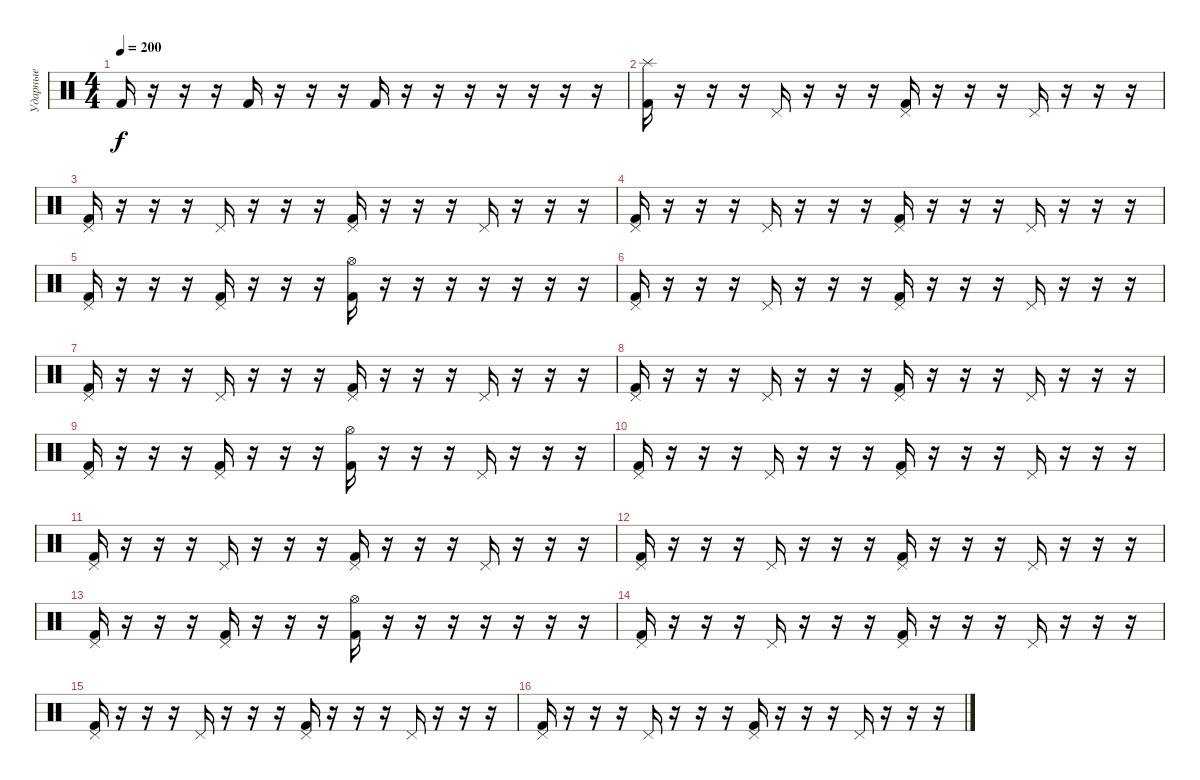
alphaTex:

\track ("Ударные" "Ударные") {instrument percussion}
\staff {score}
\articulation defaults
\ts (4 4)
\tempo 200
\clef neutral
\ks c "Kick (hit) 2".16{dy f}
r.16 r.16 r.16 "Kick (hit) 2".16 r.16 r.16 r.16 "Kick (hit) 2".16 r.16 r.16 r.16 r.16 r.16 r.16 r.16 |
("Splash (hit)" "Kick (hit) 2").16 r.16 r.16 r.16 "Pedal Hi-Hat (hit)".16 r.16 r.16 r.16 ("Pedal Hi-Hat (hit)" "Kick (hit) 2").16 r.16 r.16 r.16 "Pedal Hi-Hat (hit)".16 r.16 r.16 r.16 |
("Pedal Hi-Hat (hit)" "Kick (hit) 2").16 r.16 r.16 r.16 "Pedal Hi-Hat (hit)".16 r.16 r.16 r.16 ("Pedal Hi-Hat (hit)" "Kick (hit) 2").16 r.16 r.16 r.16 "Pedal Hi-Hat (hit)".16 r.16 r.16 r.16 |
("Pedal Hi-Hat (hit)" "Kick (hit) 2").16 r.16 r.16 r.16 "Pedal Hi-Hat (hit)".16 r.16 r.16 r.16 ("Pedal Hi-Hat (hit)" "Kick (hit) 2").16 r.16 r.16 r.16 "Pedal Hi-Hat (hit)".16 r.16 r.16 r.16 |
("Pedal Hi-Hat (hit)" "Kick (hit) 2").16 r.16 r.16 r.16 ("Pedal Hi-Hat (hit)" "Kick (hit) 2").16 r.16 r.16 r.16 ("Hi-Hat (open)" "Kick (hit) 2").16 r.16 r.16 r.16 r.16 r.16 r.16 r.16 |
("Pedal Hi-Hat (hit)" "Kick (hit) 2").16 r.16 r.16 r.16 "Pedal Hi-Hat (hit)".16 r.16 r.16 r.16 ("Pedal Hi-Hat (hit)" "Kick (hit) 2").16 r.16 r.16 r.16 "Pedal Hi-Hat (hit)".16 r.16 r.16 r.16 |
("Pedal Hi-Hat (hit)" "Kick (hit) 2").16 r.16 r.16 r.16 "Pedal Hi-Hat (hit)".16 r.16 r.16 r.16 ("Pedal Hi-Hat (hit)" "Kick (hit) 2").16 r.16 r.16 r.16 "Pedal Hi-Hat (hit)".16 r.16 r.16 r.16 |
("Pedal Hi-Hat (hit)" "Kick (hit) 2").16 r.16 r.16 r.16 "Pedal Hi-Hat (hit)".16 r.16 r.16 r.16 ("Pedal Hi-Hat (hit)" "Kick (hit) 2").16 r.16 r.16 r.16 "Pedal Hi-Hat (hit)".16 r.16 r.16 r.16 |
("Pedal Hi-Hat (hit)" "Kick (hit) 2").16 r.16 r.16 r.16 ("Pedal Hi-Hat (hit)" "Kick (hit) 2").16 r.16 r.16 r.16 ("Hi-Hat (open)" "Kick (hit) 2").16 r.16 r.16 r.16 "Pedal Hi-Hat (hit)".16 r.16 r.16 r.16 |
("Pedal Hi-Hat (hit)" "Kick (hit) 2").16 r.16 r.16 r.16 "Pedal Hi-Hat (hit)".16 r.16 r.16 r.16 ("Pedal Hi-Hat (hit)" "Kick (hit) 2").16 r.16 r.16 r.16 "Pedal Hi-Hat (hit)".16 r.16 r.16 r.16 |
("Pedal Hi-Hat (hit)" "Kick (hit) 2").16 r.16 r.16 r.16 "Pedal Hi-Hat (hit)".16 r.16 r.16 r.16 ("Pedal Hi-Hat (hit)" "Kick (hit) 2").16 r.16 r.16 r.16 "Pedal Hi-Hat (hit)".16 r.16 r.16 r.16 |
("Pedal Hi-Hat (hit)" "Kick (hit) 2").16 r.16 r.16 r.16 "Pedal Hi-Hat (hit)".16 r.16 r.16 r.16 ("Pedal Hi-Hat (hit)" "Kick (hit) 2").16 r.16 r.16 r.16 "Pedal Hi-Hat (hit)".16 r.16 r.16 r.16 |
("Pedal Hi-Hat (hit)" "Kick (hit) 2").16 r.16 r.16 r.16 ("Pedal Hi-Hat (hit)" "Kick (hit) 2").16 r.16 r.16 r.16 ("Hi-Hat (open)" "Kick (hit) 2").16 r.16 r.16 r.16 r.16 r.16 r.16 r.16 |
("Pedal Hi-Hat (hit)" "Kick (hit) 2").16 r.16 r.16 r.16 "Pedal Hi-Hat (hit)".16 r.16 r.16 r.16 ("Pedal Hi-Hat (hit)" "Kick (hit) 2").16 r.16 r.16 r.16 "Pedal Hi-Hat (hit)".16 r.16 r.16 r.16 |
("Pedal Hi-Hat (hit)" "Kick (hit) 2").16 r.16 r.16 r.16 "Pedal Hi-Hat (hit)".16 r.16 r.16 r.16 ("Pedal Hi-Hat (hit)" "Kick (hit) 2").16 r.16 r.16 r.16 "Pedal Hi-Hat (hit)".16 r.16 r.16 r.16 |
("Pedal Hi-Hat (hit)" "Kick (hit) 2").16 r.16 r.16 r.16 "Pedal Hi-Hat (hit)".16 r.16 r.16 r.16 ("Pedal Hi-Hat (hit)" "Kick (hit) 2").16 r.16 r.16 r.16 "Pedal Hi-Hat (hit)".16 r.16 r.16 r.16
